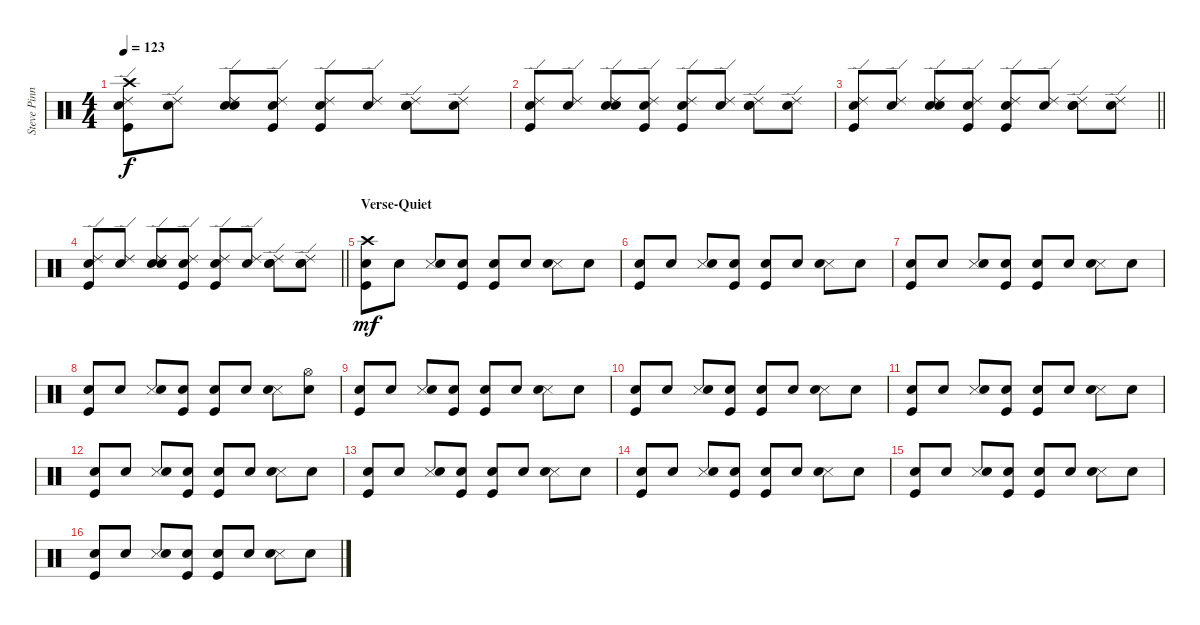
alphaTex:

\track ("Steve Pinnell - Drums" "Steve Pinn") {instrument percussion}
\staff {score}
\articulation defaults
\ts (4 4)
\tempo 123
\clef neutral
\ks c
("Crash high (hit)" "Kick (hit)" "Ride (edge) 2" "Snare (hit)").8{dy f} ("Ride (edge) 2" "Snare (hit)").8 ("Metronome (bell)" "Ride (edge) 2" "Snare (hit)").8 ("Kick (hit)" "Ride (edge) 2" "Snare (hit)").8 ("Kick (hit)" "Ride (edge) 2" "Snare (hit)").8 ("Ride (edge) 2" "Snare (hit)").8 ("Metronome (bell)" "Ride (edge) 2" "Snare (hit)").8 ("Ride (edge) 2" "Snare (hit)").8 |
("Kick (hit)" "Ride (edge) 2" "Snare (hit)").8 ("Ride (edge) 2" "Snare (hit)").8 ("Metronome (bell)" "Ride (edge) 2" "Snare (hit)").8 ("Kick (hit)" "Ride (edge) 2" "Snare (hit)").8 ("Kick (hit)" "Ride (edge) 2" "Snare (hit)").8 ("Ride (edge) 2" "Snare (hit)").8 ("Metronome (bell)" "Ride (edge) 2" "Snare (hit)").8 ("Ride (edge) 2" "Snare (hit)").8 |
\barLineRight lightlight
("Kick (hit)" "Ride (edge) 2" "Snare (hit)").8 ("Ride (edge) 2" "Snare (hit)").8 ("Metronome (bell)" "Ride (edge) 2" "Snare (hit)").8 ("Kick (hit)" "Ride (edge) 2" "Snare (hit)").8 ("Kick (hit)" "Ride (edge) 2" "Snare (hit)").8 ("Ride (edge) 2" "Snare (hit)").8 ("Metronome (bell)" "Ride (edge) 2" "Snare (hit)").8 ("Ride (edge) 2" "Snare (hit)").8 |
\barLineRight lightlight
("Kick (hit)" "Ride (edge) 2" "Snare (hit)").8 ("Ride (edge) 2" "Snare (hit)").8 ("Metronome (bell)" "Ride (edge) 2" "Snare (hit)").8 ("Kick (hit)" "Ride (edge) 2" "Snare (hit)").8 ("Kick (hit)" "Ride (edge) 2" "Snare (hit)").8 ("Ride (edge) 2" "Snare (hit)").8 ("Metronome (bell)" "Ride (edge) 2" "Snare (hit)").8 ("Metronome (bell)" "Ride (edge) 2" "Snare (hit)").8 |
\section ("" "Verse-Quiet")
("Crash high (hit)" "Kick (hit)" "Snare (hit)").8{dy mf volume 16 balance 8} "Snare (hit)".8 ("Snare (side stick) 3" "Snare (hit)").8 ("Kick (hit)" "Snare (hit)").8 ("Kick (hit)" "Snare (hit)").8 "Snare (hit)".8 ("Snare (side stick) 3" "Snare (hit)").8 "Snare (hit)".8 |
("Kick (hit)" "Snare (hit)").8 "Snare (hit)".8 ("Snare (side stick) 3" "Snare (hit)").8 ("Kick (hit)" "Snare (hit)").8 ("Kick (hit)" "Snare (hit)").8 "Snare (hit)".8 ("Snare (side stick) 3" "Snare (hit)").8 "Snare (hit)".8 |
("Kick (hit)" "Snare (hit)").8 "Snare (hit)".8 ("Snare (side stick) 3" "Snare (hit)").8 ("Kick (hit)" "Snare (hit)").8 ("Kick (hit)" "Snare (hit)").8 "Snare (hit)".8 ("Snare (side stick) 3" "Snare (hit)").8 "Snare (hit)".8 |
("Kick (hit)" "Snare (hit)").8 "Snare (hit)".8 ("Snare (side stick) 3" "Snare (hit)").8 ("Kick (hit)" "Snare (hit)").8 ("Kick (hit)" "Snare (hit)").8 "Snare (hit)".8 ("Snare (side stick) 3" "Snare (hit)").8 ("Hi-Hat (open)" "Snare (hit)").8 |
("Kick (hit)" "Snare (hit)").8 "Snare (hit)".8 ("Snare (side stick) 3" "Snare (hit)").8 ("Kick (hit)" "Snare (hit)").8 ("Kick (hit)" "Snare (hit)").8 "Snare (hit)".8 ("Snare (side stick) 3" "Snare (hit)").8 "Snare (hit)".8 |
("Kick (hit)" "Snare (hit)").8 "Snare (hit)".8 ("Snare (side stick) 3" "Snare (hit)").8 ("Kick (hit)" "Snare (hit)").8 ("Kick (hit)" "Snare (hit)").8 "Snare (hit)".8 ("Snare (side stick) 3" "Snare (hit)").8 "Snare (hit)".8 |
("Kick (hit)" "Snare (hit)").8 "Snare (hit)".8 ("Snare (side stick) 3" "Snare (hit)").8 ("Kick (hit)" "Snare (hit)").8 ("Kick (hit)" "Snare (hit)").8 "Snare (hit)".8 ("Snare (side stick) 3" "Snare (hit)").8 "Snare (hit)".8 |
("Kick (hit)" "Snare (hit)").8 "Snare (hit)".8 ("Snare (side stick) 3" "Snare (hit)").8 ("Kick (hit)" "Snare (hit)").8 ("Kick (hit)" "Snare (hit)").8 "Snare (hit)".8 ("Snare (side stick) 3" "Snare (hit)").8 "Snare (hit)".8 |
("Kick (hit)" "Snare (hit)").8 "Snare (hit)".8 ("Snare (side stick) 3" "Snare (hit)").8 ("Kick (hit)" "Snare (hit)").8 ("Kick (hit)" "Snare (hit)").8 "Snare (hit)".8 ("Snare (side stick) 3" "Snare (hit)").8 "Snare (hit)".8 |
("Kick (hit)" "Snare (hit)").8 "Snare (hit)".8 ("Snare (side stick) 3" "Snare (hit)").8 ("Kick (hit)" "Snare (hit)").8 ("Kick (hit)" "Snare (hit)").8 "Snare (hit)".8 ("Snare (side stick) 3" "Snare (hit)").8 "Snare (hit)".8 |
("Kick (hit)" "Snare (hit)").8 "Snare (hit)".8 ("Snare (side stick) 3" "Snare (hit)").8 ("Kick (hit)" "Snare (hit)").8 ("Kick (hit)" "Snare (hit)").8 "Snare (hit)".8 ("Snare (side stick) 3" "Snare (hit)").8 "Snare (hit)".8 |
("Kick (hit)" "Snare (hit)").8 "Snare (hit)".8 ("Snare (side stick) 3" "Snare (hit)").8 ("Kick (hit)" "Snare (hit)").8 ("Kick (hit)" "Snare (hit)").8 "Snare (hit)".8 ("Snare (side stick) 3" "Snare (hit)").8 "Snare (hit)".8
